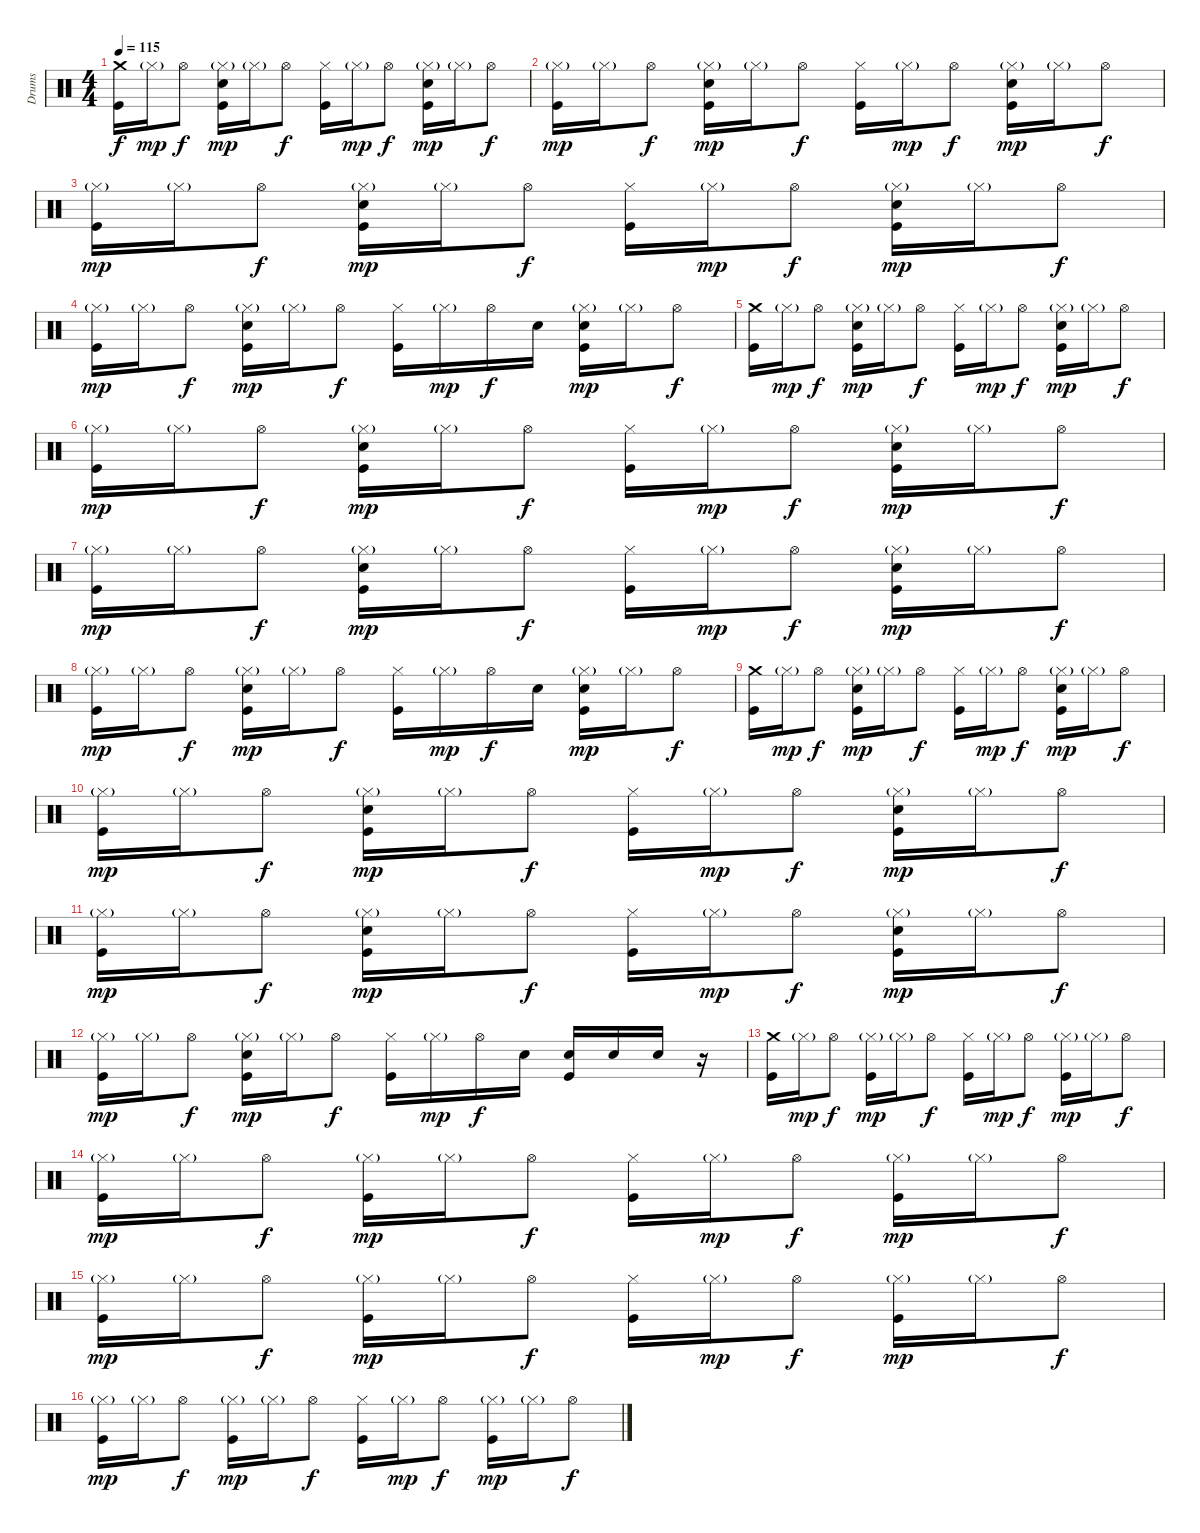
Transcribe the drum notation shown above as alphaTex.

\track ("Drums" "Drums") {instrument percussion}
\staff {score}
\articulation defaults
\ts (4 4)
\tempo 115
\clef neutral
\ks c
("Crash medium (hit)" "Kick (hit)").16{dy f} "Hi-Hat (closed)"{g}.16{dy mp} "Hi-Hat (open)".8{dy f} ("Hi-Hat (closed)"{g} "Electric Snare (hit)" "Kick (hit)").16{dy mp} "Hi-Hat (closed)"{g}.16 "Hi-Hat (open)".8{dy f} ("Hi-Hat (closed)" "Kick (hit)").16 "Hi-Hat (closed)"{g}.16{dy mp} "Hi-Hat (open)".8{dy f} ("Hi-Hat (closed)"{g} "Electric Snare (hit)" "Kick (hit)").16{dy mp} "Hi-Hat (closed)"{g}.16 "Hi-Hat (open)".8{dy f} |
("Hi-Hat (closed)"{g} "Kick (hit)").16{dy mp} "Hi-Hat (closed)"{g}.16 "Hi-Hat (open)".8{dy f} ("Hi-Hat (closed)"{g} "Electric Snare (hit)" "Kick (hit)").16{dy mp} "Hi-Hat (closed)"{g}.16 "Hi-Hat (open)".8{dy f} ("Hi-Hat (closed)" "Kick (hit)").16 "Hi-Hat (closed)"{g}.16{dy mp} "Hi-Hat (open)".8{dy f} ("Hi-Hat (closed)"{g} "Electric Snare (hit)" "Kick (hit)").16{dy mp} "Hi-Hat (closed)"{g}.16 "Hi-Hat (open)".8{dy f} |
("Hi-Hat (closed)"{g} "Kick (hit)").16{dy mp} "Hi-Hat (closed)"{g}.16 "Hi-Hat (open)".8{dy f} ("Hi-Hat (closed)"{g} "Electric Snare (hit)" "Kick (hit)").16{dy mp} "Hi-Hat (closed)"{g}.16 "Hi-Hat (open)".8{dy f} ("Hi-Hat (closed)" "Kick (hit)").16 "Hi-Hat (closed)"{g}.16{dy mp} "Hi-Hat (open)".8{dy f} ("Hi-Hat (closed)"{g} "Electric Snare (hit)" "Kick (hit)").16{dy mp} "Hi-Hat (closed)"{g}.16 "Hi-Hat (open)".8{dy f} |
("Hi-Hat (closed)"{g} "Kick (hit)").16{dy mp} "Hi-Hat (closed)"{g}.16 "Hi-Hat (open)".8{dy f} ("Hi-Hat (closed)"{g} "Electric Snare (hit)" "Kick (hit)").16{dy mp} "Hi-Hat (closed)"{g}.16 "Hi-Hat (open)".8{dy f} ("Hi-Hat (closed)" "Kick (hit)").16 "Hi-Hat (closed)"{g}.16{dy mp} "Hi-Hat (open)".16{dy f} "Electric Snare (hit)".16 ("Hi-Hat (closed)"{g} "Electric Snare (hit)" "Kick (hit)").16{dy mp} "Hi-Hat (closed)"{g}.16 "Hi-Hat (open)".8{dy f} |
("Crash medium (hit)" "Kick (hit)").16 "Hi-Hat (closed)"{g}.16{dy mp} "Hi-Hat (open)".8{dy f} ("Hi-Hat (closed)"{g} "Electric Snare (hit)" "Kick (hit)").16{dy mp} "Hi-Hat (closed)"{g}.16 "Hi-Hat (open)".8{dy f} ("Hi-Hat (closed)" "Kick (hit)").16 "Hi-Hat (closed)"{g}.16{dy mp} "Hi-Hat (open)".8{dy f} ("Hi-Hat (closed)"{g} "Electric Snare (hit)" "Kick (hit)").16{dy mp} "Hi-Hat (closed)"{g}.16 "Hi-Hat (open)".8{dy f} |
("Hi-Hat (closed)"{g} "Kick (hit)").16{dy mp} "Hi-Hat (closed)"{g}.16 "Hi-Hat (open)".8{dy f} ("Hi-Hat (closed)"{g} "Electric Snare (hit)" "Kick (hit)").16{dy mp} "Hi-Hat (closed)"{g}.16 "Hi-Hat (open)".8{dy f} ("Hi-Hat (closed)" "Kick (hit)").16 "Hi-Hat (closed)"{g}.16{dy mp} "Hi-Hat (open)".8{dy f} ("Hi-Hat (closed)"{g} "Electric Snare (hit)" "Kick (hit)").16{dy mp} "Hi-Hat (closed)"{g}.16 "Hi-Hat (open)".8{dy f} |
("Hi-Hat (closed)"{g} "Kick (hit)").16{dy mp} "Hi-Hat (closed)"{g}.16 "Hi-Hat (open)".8{dy f} ("Hi-Hat (closed)"{g} "Electric Snare (hit)" "Kick (hit)").16{dy mp} "Hi-Hat (closed)"{g}.16 "Hi-Hat (open)".8{dy f} ("Hi-Hat (closed)" "Kick (hit)").16 "Hi-Hat (closed)"{g}.16{dy mp} "Hi-Hat (open)".8{dy f} ("Hi-Hat (closed)"{g} "Electric Snare (hit)" "Kick (hit)").16{dy mp} "Hi-Hat (closed)"{g}.16 "Hi-Hat (open)".8{dy f} |
("Hi-Hat (closed)"{g} "Kick (hit)").16{dy mp} "Hi-Hat (closed)"{g}.16 "Hi-Hat (open)".8{dy f} ("Hi-Hat (closed)"{g} "Electric Snare (hit)" "Kick (hit)").16{dy mp} "Hi-Hat (closed)"{g}.16 "Hi-Hat (open)".8{dy f} ("Hi-Hat (closed)" "Kick (hit)").16 "Hi-Hat (closed)"{g}.16{dy mp} "Hi-Hat (open)".16{dy f} "Electric Snare (hit)".16 ("Hi-Hat (closed)"{g} "Electric Snare (hit)" "Kick (hit)").16{dy mp} "Hi-Hat (closed)"{g}.16 "Hi-Hat (open)".8{dy f} |
("Crash medium (hit)" "Kick (hit)").16 "Hi-Hat (closed)"{g}.16{dy mp} "Hi-Hat (open)".8{dy f} ("Hi-Hat (closed)"{g} "Electric Snare (hit)" "Kick (hit)").16{dy mp} "Hi-Hat (closed)"{g}.16 "Hi-Hat (open)".8{dy f} ("Hi-Hat (closed)" "Kick (hit)").16 "Hi-Hat (closed)"{g}.16{dy mp} "Hi-Hat (open)".8{dy f} ("Hi-Hat (closed)"{g} "Electric Snare (hit)" "Kick (hit)").16{dy mp} "Hi-Hat (closed)"{g}.16 "Hi-Hat (open)".8{dy f} |
("Hi-Hat (closed)"{g} "Kick (hit)").16{dy mp} "Hi-Hat (closed)"{g}.16 "Hi-Hat (open)".8{dy f} ("Hi-Hat (closed)"{g} "Electric Snare (hit)" "Kick (hit)").16{dy mp} "Hi-Hat (closed)"{g}.16 "Hi-Hat (open)".8{dy f} ("Hi-Hat (closed)" "Kick (hit)").16 "Hi-Hat (closed)"{g}.16{dy mp} "Hi-Hat (open)".8{dy f} ("Hi-Hat (closed)"{g} "Electric Snare (hit)" "Kick (hit)").16{dy mp} "Hi-Hat (closed)"{g}.16 "Hi-Hat (open)".8{dy f} |
("Hi-Hat (closed)"{g} "Kick (hit)").16{dy mp} "Hi-Hat (closed)"{g}.16 "Hi-Hat (open)".8{dy f} ("Hi-Hat (closed)"{g} "Electric Snare (hit)" "Kick (hit)").16{dy mp} "Hi-Hat (closed)"{g}.16 "Hi-Hat (open)".8{dy f} ("Hi-Hat (closed)" "Kick (hit)").16 "Hi-Hat (closed)"{g}.16{dy mp} "Hi-Hat (open)".8{dy f} ("Hi-Hat (closed)"{g} "Electric Snare (hit)" "Kick (hit)").16{dy mp} "Hi-Hat (closed)"{g}.16 "Hi-Hat (open)".8{dy f} |
("Hi-Hat (closed)"{g} "Kick (hit)").16{dy mp} "Hi-Hat (closed)"{g}.16 "Hi-Hat (open)".8{dy f} ("Hi-Hat (closed)"{g} "Electric Snare (hit)" "Kick (hit)").16{dy mp} "Hi-Hat (closed)"{g}.16 "Hi-Hat (open)".8{dy f} ("Hi-Hat (closed)" "Kick (hit)").16 "Hi-Hat (closed)"{g}.16{dy mp} "Hi-Hat (open)".16{dy f} "Electric Snare (hit)".16 ("Electric Snare (hit)" "Kick (hit)").16 "Electric Snare (hit)".16 "Electric Snare (hit)".16 r.16 |
("Crash medium (hit)" "Kick (hit)").16 "Hi-Hat (closed)"{g}.16{dy mp} "Hi-Hat (open)".8{dy f} ("Hi-Hat (closed)"{g} "Kick (hit)").16{dy mp} "Hi-Hat (closed)"{g}.16 "Hi-Hat (open)".8{dy f} ("Hi-Hat (closed)" "Kick (hit)").16 "Hi-Hat (closed)"{g}.16{dy mp} "Hi-Hat (open)".8{dy f} ("Hi-Hat (closed)"{g} "Kick (hit)").16{dy mp} "Hi-Hat (closed)"{g}.16 "Hi-Hat (open)".8{dy f} |
("Hi-Hat (closed)"{g} "Kick (hit)").16{dy mp} "Hi-Hat (closed)"{g}.16 "Hi-Hat (open)".8{dy f} ("Hi-Hat (closed)"{g} "Kick (hit)").16{dy mp} "Hi-Hat (closed)"{g}.16 "Hi-Hat (open)".8{dy f} ("Hi-Hat (closed)" "Kick (hit)").16 "Hi-Hat (closed)"{g}.16{dy mp} "Hi-Hat (open)".8{dy f} ("Hi-Hat (closed)"{g} "Kick (hit)").16{dy mp} "Hi-Hat (closed)"{g}.16 "Hi-Hat (open)".8{dy f} |
("Hi-Hat (closed)"{g} "Kick (hit)").16{dy mp} "Hi-Hat (closed)"{g}.16 "Hi-Hat (open)".8{dy f} ("Hi-Hat (closed)"{g} "Kick (hit)").16{dy mp} "Hi-Hat (closed)"{g}.16 "Hi-Hat (open)".8{dy f} ("Hi-Hat (closed)" "Kick (hit)").16 "Hi-Hat (closed)"{g}.16{dy mp} "Hi-Hat (open)".8{dy f} ("Hi-Hat (closed)"{g} "Kick (hit)").16{dy mp} "Hi-Hat (closed)"{g}.16 "Hi-Hat (open)".8{dy f} |
("Hi-Hat (closed)"{g} "Kick (hit)").16{dy mp} "Hi-Hat (closed)"{g}.16 "Hi-Hat (open)".8{dy f} ("Hi-Hat (closed)"{g} "Kick (hit)").16{dy mp} "Hi-Hat (closed)"{g}.16 "Hi-Hat (open)".8{dy f} ("Hi-Hat (closed)" "Kick (hit)").16 "Hi-Hat (closed)"{g}.16{dy mp} "Hi-Hat (open)".8{dy f} ("Hi-Hat (closed)"{g} "Kick (hit)").16{dy mp} "Hi-Hat (closed)"{g}.16 "Hi-Hat (open)".8{dy f}
